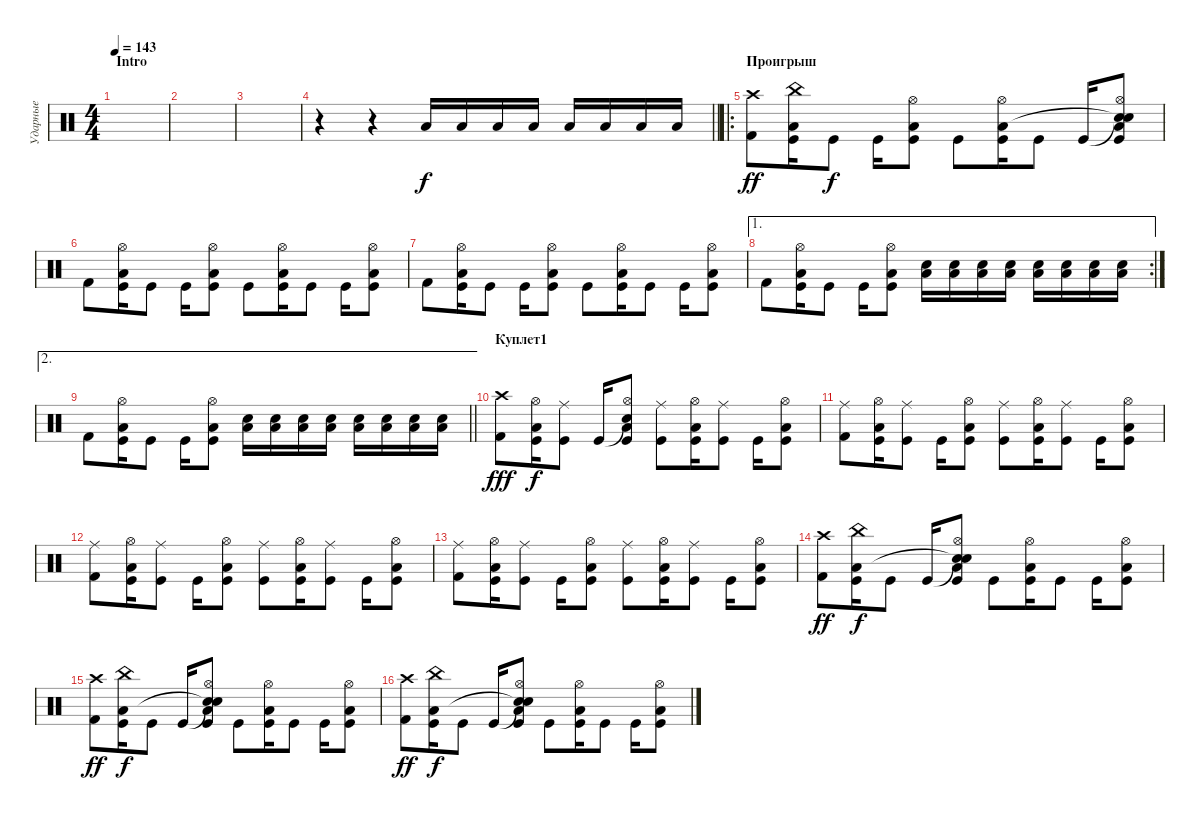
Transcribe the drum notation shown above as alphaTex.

\track ("Ударные" "Ударные") {instrument percussion}
\staff {score}
\articulation defaults
\ts (4 4)
\section ("" "Intro")
\tempo 143
\clef neutral
\ks c
|
|
|
\barLineRight lightlight
r.4 r.4 "Low Tom (hit)".16 "Low Tom (hit)".16 "Low Tom (hit)".16 "Low Tom (hit)".16 "Low Floor Tom (hit)".16 "Low Floor Tom (hit)".16 "Low Floor Tom (hit)".16 "Low Floor Tom (hit)".16 |
\ro
\section ("" "Проигрыш")
("Crash high (hit)" "Kick (hit) 2").8{dy ff balance 14} ("China (hit)" "Low Tom (hit)" "Kick (hit)").16 "Kick (hit)".8{dy f balance 8} "Kick (hit)".16 ("Hi-Hat (open)" "Low Tom (hit)" "Kick (hit)").8 "Kick (hit)".8 ("Hi-Hat (open)" "Low Tom (hit)" "Kick (hit)").16 "Kick (hit)".8 "Kick (hit)".16 ("Snare (hit)"{t} "Snare (hit)"{t} "Hi-Hat (open)" "Low Tom (hit)" "Kick (hit)").8 |
"Kick (hit) 2".8 ("Hi-Hat (open)" "Low Tom (hit)" "Kick (hit)").16 "Kick (hit)".8 "Kick (hit)".16 ("Hi-Hat (open)" "Low Tom (hit)" "Kick (hit)").8 "Kick (hit)".8 ("Hi-Hat (open)" "Low Tom (hit)" "Kick (hit)").16 "Kick (hit)".8 "Kick (hit)".16 ("Hi-Hat (open)" "Low Tom (hit)" "Kick (hit)").8 |
"Kick (hit) 2".8 ("Hi-Hat (open)" "Low Tom (hit)" "Kick (hit)").16 "Kick (hit)".8 "Kick (hit)".16 ("Hi-Hat (open)" "Low Tom (hit)" "Kick (hit)").8 "Kick (hit)".8 ("Hi-Hat (open)" "Low Tom (hit)" "Kick (hit)").16 "Kick (hit)".8 "Kick (hit)".16 ("Hi-Hat (open)" "Low Tom (hit)" "Kick (hit)").8 |
\ae 1
\rc 2 "Kick (hit) 2".8
("Hi-Hat (open)" "Low Tom (hit)" "Kick (hit)").16 "Kick (hit)".8 "Kick (hit)".16 ("Hi-Hat (open)" "Low Tom (hit)" "Kick (hit)").8 ("Snare (hit) 2" "Low Tom (hit)").16 ("Snare (hit) 2" "Low Tom (hit)").16 ("Snare (hit) 2" "Low Tom (hit)").16 ("Snare (hit) 2" "Low Tom (hit)").16 ("Snare (hit) 2" "Low Tom (hit)").16 ("Snare (hit) 2" "Low Tom (hit)").16 ("Snare (hit) 2" "Low Tom (hit)").16 ("Snare (hit) 2" "Low Tom (hit)").16 |
\ae 2
\barLineRight lightlight "Kick (hit) 2".8
("Hi-Hat (open)" "Low Tom (hit)" "Kick (hit)").16 "Kick (hit)".8 "Kick (hit)".16 ("Hi-Hat (open)" "Low Tom (hit)" "Kick (hit)").8 ("Snare (hit) 2" "Low Tom (hit)").16 ("Snare (hit) 2" "Low Tom (hit)").16 ("Snare (hit) 2" "Low Tom (hit)").16 ("Snare (hit) 2" "Low Tom (hit)").16 ("Snare (hit) 2" "Low Tom (hit)").16 ("Snare (hit) 2" "Low Tom (hit)").16 ("Snare (hit) 2" "Low Tom (hit)").16 ("Snare (hit) 2" "Low Tom (hit)").16 |
\section ("" "Куплет1")
("Crash high (hit)" "Kick (hit) 2").8{dy fff balance 14} ("Hi-Hat (open)" "Low Tom (hit)" "Kick (hit)").16{dy f balance 8} ("Ride (middle)" "Kick (hit)").8 "Kick (hit)".16 ("Snare (hit)"{t} "Hi-Hat (open)" "Low Tom (hit)" "Kick (hit)").8 ("Ride (middle)" "Kick (hit)").8 ("Hi-Hat (open)" "Low Tom (hit)" "Kick (hit)").16 ("Ride (middle)" "Kick (hit)").8 "Kick (hit)".16 ("Hi-Hat (open)" "Low Tom (hit)" "Kick (hit)").8 |
("Ride (middle)" "Kick (hit) 2").8 ("Hi-Hat (open)" "Low Tom (hit)" "Kick (hit)").16 ("Ride (middle)" "Kick (hit)").8 "Kick (hit)".16 ("Hi-Hat (open)" "Low Tom (hit)" "Kick (hit)").8 ("Ride (middle)" "Kick (hit)").8 ("Hi-Hat (open)" "Low Tom (hit)" "Kick (hit)").16 ("Ride (middle)" "Kick (hit)").8 "Kick (hit)".16 ("Hi-Hat (open)" "Low Tom (hit)" "Kick (hit)").8 |
("Ride (middle)" "Kick (hit) 2").8 ("Hi-Hat (open)" "Low Tom (hit)" "Kick (hit)").16 ("Ride (middle)" "Kick (hit)").8 "Kick (hit)".16 ("Hi-Hat (open)" "Low Tom (hit)" "Kick (hit)").8 ("Ride (middle)" "Kick (hit)").8 ("Hi-Hat (open)" "Low Tom (hit)" "Kick (hit)").16 ("Ride (middle)" "Kick (hit)").8 "Kick (hit)".16 ("Hi-Hat (open)" "Low Tom (hit)" "Kick (hit)").8 |
("Ride (middle)" "Kick (hit) 2").8 ("Hi-Hat (open)" "Low Tom (hit)" "Kick (hit)").16 ("Ride (middle)" "Kick (hit)").8 "Kick (hit)".16 ("Hi-Hat (open)" "Low Tom (hit)" "Kick (hit)").8 ("Ride (middle)" "Kick (hit)").8 ("Hi-Hat (open)" "Low Tom (hit)" "Kick (hit)").16 ("Ride (middle)" "Kick (hit)").8 "Kick (hit)".16 ("Hi-Hat (open)" "Low Tom (hit)" "Kick (hit)").8 |
("Crash high (hit)" "Kick (hit) 2").8{dy ff balance 14} ("China (hit)" "Low Tom (hit)" "Kick (hit)").16{dy f} "Kick (hit)".8{balance 8} "Kick (hit)".16 ("Snare (hit)"{t} "Snare (hit)"{t} "Hi-Hat (open)" "Low Tom (hit)" "Kick (hit)").8 "Kick (hit)".8 ("Hi-Hat (open)" "Low Tom (hit)" "Kick (hit)").16 "Kick (hit)".8 "Kick (hit)".16 ("Hi-Hat (open)" "Low Tom (hit)" "Kick (hit)").8 |
("Crash high (hit)" "Kick (hit) 2").8{dy ff balance 14} ("China (hit)" "Low Tom (hit)" "Kick (hit)").16{dy f} "Kick (hit)".8{balance 8} "Kick (hit)".16 ("Snare (hit)"{t} "Snare (hit)"{t} "Hi-Hat (open)" "Low Tom (hit)" "Kick (hit)").8 "Kick (hit)".8 ("Hi-Hat (open)" "Low Tom (hit)" "Kick (hit)").16 "Kick (hit)".8 "Kick (hit)".16 ("Hi-Hat (open)" "Low Tom (hit)" "Kick (hit)").8 |
("Crash high (hit)" "Kick (hit) 2").8{dy ff balance 14} ("China (hit)" "Low Tom (hit)" "Kick (hit)").16{dy f} "Kick (hit)".8{balance 8} "Kick (hit)".16 ("Snare (hit)"{t} "Snare (hit)"{t} "Hi-Hat (open)" "Low Tom (hit)" "Kick (hit)").8 "Kick (hit)".8 ("Hi-Hat (open)" "Low Tom (hit)" "Kick (hit)").16 "Kick (hit)".8 "Kick (hit)".16 ("Hi-Hat (open)" "Low Tom (hit)" "Kick (hit)").8
